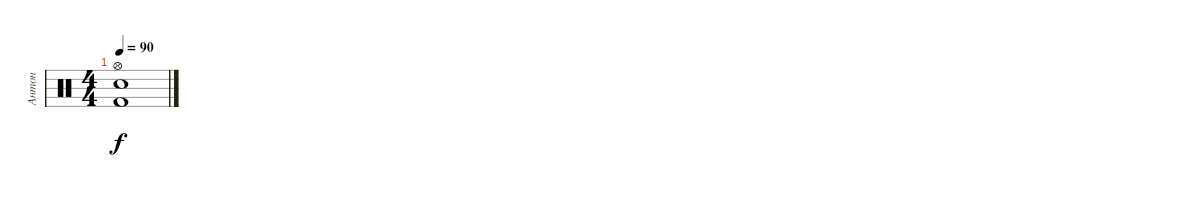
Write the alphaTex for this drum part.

\track ("Антон" "Антон") {instrument percussion}
\staff {score}
\articulation defaults
\ts (4 4)
\tempo 90
\clef neutral
\ks c
("Hi-Hat (open)" "Electric Snare (hit)" "Kick (hit) 2").1{dy f}
